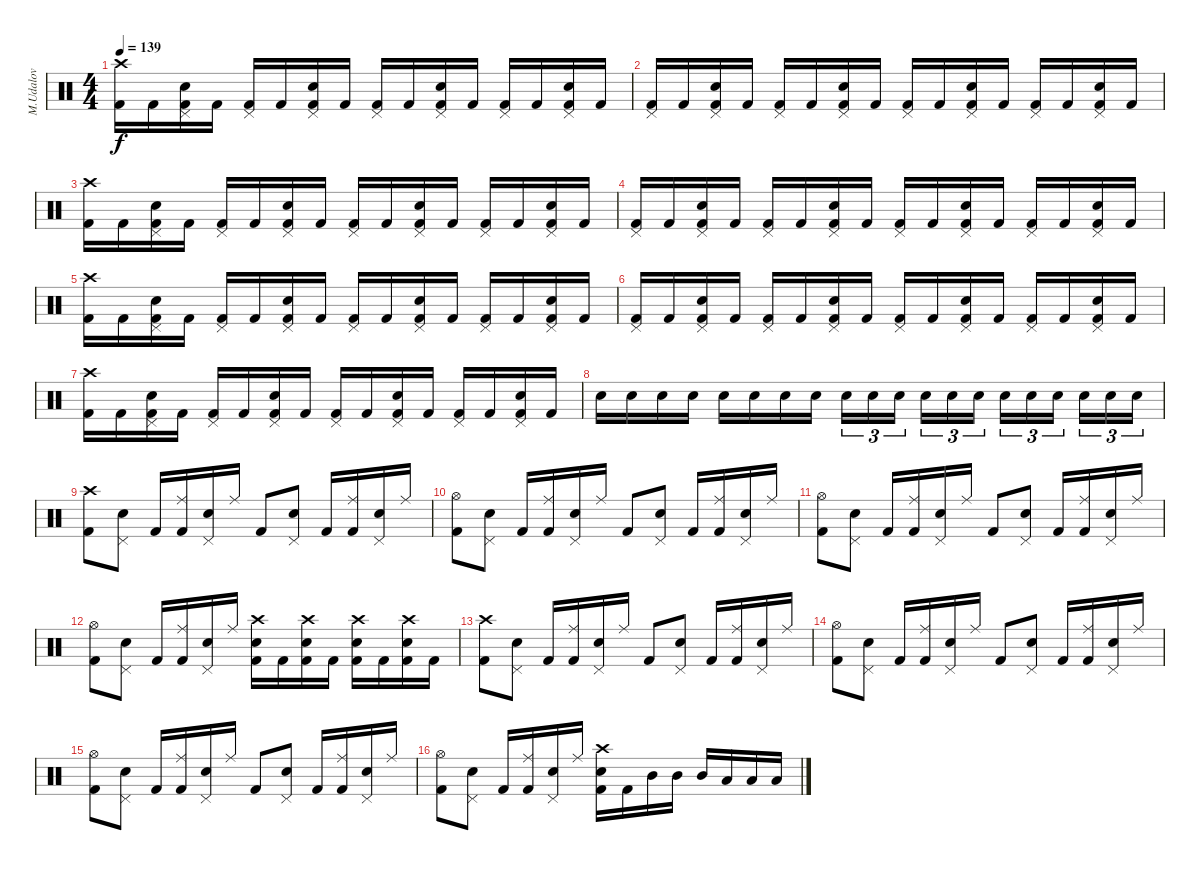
\track ("M.Udalov" "M.Udalov") {instrument percussion}
\staff {score}
\articulation defaults
\ts (4 4)
\tempo 139
\clef neutral
\ks c
("Crash high (hit)" "Kick (hit) 2").16{dy f} "Kick (hit) 2".16 ("Pedal Hi-Hat (hit)" "Snare (hit) 2" "Kick (hit) 2").16 "Kick (hit) 2".16 ("Pedal Hi-Hat (hit)" "Kick (hit) 2").16 "Kick (hit) 2".16 ("Pedal Hi-Hat (hit)" "Snare (hit) 2" "Kick (hit) 2").16 "Kick (hit) 2".16 ("Pedal Hi-Hat (hit)" "Kick (hit) 2").16 "Kick (hit) 2".16 ("Pedal Hi-Hat (hit)" "Snare (hit) 2" "Kick (hit) 2").16 "Kick (hit) 2".16 ("Pedal Hi-Hat (hit)" "Kick (hit) 2").16 "Kick (hit) 2".16 ("Pedal Hi-Hat (hit)" "Snare (hit) 2" "Kick (hit) 2").16 "Kick (hit) 2".16 |
("Pedal Hi-Hat (hit)" "Kick (hit) 2").16 "Kick (hit) 2".16 ("Pedal Hi-Hat (hit)" "Snare (hit) 2" "Kick (hit) 2").16 "Kick (hit) 2".16 ("Pedal Hi-Hat (hit)" "Kick (hit) 2").16 "Kick (hit) 2".16 ("Pedal Hi-Hat (hit)" "Snare (hit) 2" "Kick (hit) 2").16 "Kick (hit) 2".16 ("Pedal Hi-Hat (hit)" "Kick (hit) 2").16 "Kick (hit) 2".16 ("Pedal Hi-Hat (hit)" "Snare (hit) 2" "Kick (hit) 2").16 "Kick (hit) 2".16 ("Pedal Hi-Hat (hit)" "Kick (hit) 2").16 "Kick (hit) 2".16 ("Pedal Hi-Hat (hit)" "Snare (hit) 2" "Kick (hit) 2").16 "Kick (hit) 2".16 |
("Crash high (hit)" "Kick (hit) 2").16 "Kick (hit) 2".16 ("Pedal Hi-Hat (hit)" "Snare (hit) 2" "Kick (hit) 2").16 "Kick (hit) 2".16 ("Pedal Hi-Hat (hit)" "Kick (hit) 2").16 "Kick (hit) 2".16 ("Pedal Hi-Hat (hit)" "Snare (hit) 2" "Kick (hit) 2").16 "Kick (hit) 2".16 ("Pedal Hi-Hat (hit)" "Kick (hit) 2").16 "Kick (hit) 2".16 ("Pedal Hi-Hat (hit)" "Snare (hit) 2" "Kick (hit) 2").16 "Kick (hit) 2".16 ("Pedal Hi-Hat (hit)" "Kick (hit) 2").16 "Kick (hit) 2".16 ("Pedal Hi-Hat (hit)" "Snare (hit) 2" "Kick (hit) 2").16 "Kick (hit) 2".16 |
("Pedal Hi-Hat (hit)" "Kick (hit) 2").16 "Kick (hit) 2".16 ("Pedal Hi-Hat (hit)" "Snare (hit) 2" "Kick (hit) 2").16 "Kick (hit) 2".16 ("Pedal Hi-Hat (hit)" "Kick (hit) 2").16 "Kick (hit) 2".16 ("Pedal Hi-Hat (hit)" "Snare (hit) 2" "Kick (hit) 2").16 "Kick (hit) 2".16 ("Pedal Hi-Hat (hit)" "Kick (hit) 2").16 "Kick (hit) 2".16 ("Pedal Hi-Hat (hit)" "Snare (hit) 2" "Kick (hit) 2").16 "Kick (hit) 2".16 ("Pedal Hi-Hat (hit)" "Kick (hit) 2").16 "Kick (hit) 2".16 ("Pedal Hi-Hat (hit)" "Snare (hit) 2" "Kick (hit) 2").16 "Kick (hit) 2".16 |
("Crash high (hit)" "Kick (hit) 2").16 "Kick (hit) 2".16 ("Pedal Hi-Hat (hit)" "Snare (hit) 2" "Kick (hit) 2").16 "Kick (hit) 2".16 ("Pedal Hi-Hat (hit)" "Kick (hit) 2").16 "Kick (hit) 2".16 ("Pedal Hi-Hat (hit)" "Snare (hit) 2" "Kick (hit) 2").16 "Kick (hit) 2".16 ("Pedal Hi-Hat (hit)" "Kick (hit) 2").16 "Kick (hit) 2".16 ("Pedal Hi-Hat (hit)" "Snare (hit) 2" "Kick (hit) 2").16 "Kick (hit) 2".16 ("Pedal Hi-Hat (hit)" "Kick (hit) 2").16 "Kick (hit) 2".16 ("Pedal Hi-Hat (hit)" "Snare (hit) 2" "Kick (hit) 2").16 "Kick (hit) 2".16 |
("Pedal Hi-Hat (hit)" "Kick (hit) 2").16 "Kick (hit) 2".16 ("Pedal Hi-Hat (hit)" "Snare (hit) 2" "Kick (hit) 2").16 "Kick (hit) 2".16 ("Pedal Hi-Hat (hit)" "Kick (hit) 2").16 "Kick (hit) 2".16 ("Pedal Hi-Hat (hit)" "Snare (hit) 2" "Kick (hit) 2").16 "Kick (hit) 2".16 ("Pedal Hi-Hat (hit)" "Kick (hit) 2").16 "Kick (hit) 2".16 ("Pedal Hi-Hat (hit)" "Snare (hit) 2" "Kick (hit) 2").16 "Kick (hit) 2".16 ("Pedal Hi-Hat (hit)" "Kick (hit) 2").16 "Kick (hit) 2".16 ("Pedal Hi-Hat (hit)" "Snare (hit) 2" "Kick (hit) 2").16 "Kick (hit) 2".16 |
("Crash high (hit)" "Kick (hit) 2").16 "Kick (hit) 2".16 ("Pedal Hi-Hat (hit)" "Snare (hit) 2" "Kick (hit) 2").16 "Kick (hit) 2".16 ("Pedal Hi-Hat (hit)" "Kick (hit) 2").16 "Kick (hit) 2".16 ("Pedal Hi-Hat (hit)" "Snare (hit) 2" "Kick (hit) 2").16 "Kick (hit) 2".16 ("Pedal Hi-Hat (hit)" "Kick (hit) 2").16 "Kick (hit) 2".16 ("Pedal Hi-Hat (hit)" "Snare (hit) 2" "Kick (hit) 2").16 "Kick (hit) 2".16 ("Pedal Hi-Hat (hit)" "Kick (hit) 2").16 "Kick (hit) 2".16 ("Pedal Hi-Hat (hit)" "Snare (hit) 2" "Kick (hit) 2").16 "Kick (hit) 2".16 |
"Snare (hit) 2".16 "Snare (hit) 2".16 "Snare (hit) 2".16 "Snare (hit) 2".16 "Snare (hit) 2".16 "Snare (hit) 2".16 "Snare (hit) 2".16 "Snare (hit) 2".16 "Snare (hit) 2".16{tu (3 2)} "Snare (hit) 2".16{tu (3 2)} "Snare (hit) 2".16{tu (3 2)} "Snare (hit) 2".16{tu (3 2)} "Snare (hit) 2".16{tu (3 2)} "Snare (hit) 2".16{tu (3 2)} "Snare (hit) 2".16{tu (3 2)} "Snare (hit) 2".16{tu (3 2)} "Snare (hit) 2".16{tu (3 2)} "Snare (hit) 2".16{tu (3 2)} "Snare (hit) 2".16{tu (3 2)} "Snare (hit) 2".16{tu (3 2)} |
("Crash high (hit)" "Kick (hit) 2").8 ("Pedal Hi-Hat (hit)" "Snare (hit) 2").8 "Kick (hit) 2".16 ("Ride (middle)" "Kick (hit) 2").16 ("Pedal Hi-Hat (hit)" "Snare (hit) 2").16 "Ride (middle)".16 "Kick (hit) 2".8 ("Pedal Hi-Hat (hit)" "Snare (hit) 2").8 "Kick (hit) 2".16 ("Ride (middle)" "Kick (hit) 2").16 ("Pedal Hi-Hat (hit)" "Snare (hit) 2").16 "Ride (middle)".16 |
("Hi-Hat (open)" "Kick (hit) 2").8 ("Pedal Hi-Hat (hit)" "Snare (hit) 2").8 "Kick (hit) 2".16 ("Ride (middle)" "Kick (hit) 2").16 ("Pedal Hi-Hat (hit)" "Snare (hit) 2").16 "Ride (middle)".16 "Kick (hit) 2".8 ("Pedal Hi-Hat (hit)" "Snare (hit) 2").8 "Kick (hit) 2".16 ("Ride (middle)" "Kick (hit) 2").16 ("Pedal Hi-Hat (hit)" "Snare (hit) 2").16 "Ride (middle)".16 |
("Hi-Hat (open)" "Kick (hit) 2").8 ("Pedal Hi-Hat (hit)" "Snare (hit) 2").8 "Kick (hit) 2".16 ("Ride (middle)" "Kick (hit) 2").16 ("Pedal Hi-Hat (hit)" "Snare (hit) 2").16 "Ride (middle)".16 "Kick (hit) 2".8 ("Pedal Hi-Hat (hit)" "Snare (hit) 2").8 "Kick (hit) 2".16 ("Ride (middle)" "Kick (hit) 2").16 ("Pedal Hi-Hat (hit)" "Snare (hit) 2").16 "Ride (middle)".16 |
("Hi-Hat (open)" "Kick (hit) 2").8 ("Pedal Hi-Hat (hit)" "Snare (hit) 2").8 "Kick (hit) 2".16 ("Ride (middle)" "Kick (hit) 2").16 ("Pedal Hi-Hat (hit)" "Snare (hit) 2").16 "Ride (middle)".16 ("Crash high (hit)" "Snare (hit) 2" "Kick (hit) 2").16 "Kick (hit) 2".16 ("Crash high (hit)" "Snare (hit) 2" "Kick (hit) 2").16 "Kick (hit) 2".16 ("Crash high (hit)" "Snare (hit) 2" "Kick (hit) 2").16 "Kick (hit) 2".16 ("Crash high (hit)" "Snare (hit) 2" "Kick (hit) 2").16 "Kick (hit) 2".16 |
("Crash high (hit)" "Kick (hit) 2").8 ("Pedal Hi-Hat (hit)" "Snare (hit) 2").8 "Kick (hit) 2".16 ("Ride (middle)" "Kick (hit) 2").16 ("Pedal Hi-Hat (hit)" "Snare (hit) 2").16 "Ride (middle)".16 "Kick (hit) 2".8 ("Pedal Hi-Hat (hit)" "Snare (hit) 2").8 "Kick (hit) 2".16 ("Ride (middle)" "Kick (hit) 2").16 ("Pedal Hi-Hat (hit)" "Snare (hit) 2").16 "Ride (middle)".16 |
("Hi-Hat (open)" "Kick (hit) 2").8 ("Pedal Hi-Hat (hit)" "Snare (hit) 2").8 "Kick (hit) 2".16 ("Ride (middle)" "Kick (hit) 2").16 ("Pedal Hi-Hat (hit)" "Snare (hit) 2").16 "Ride (middle)".16 "Kick (hit) 2".8 ("Pedal Hi-Hat (hit)" "Snare (hit) 2").8 "Kick (hit) 2".16 ("Ride (middle)" "Kick (hit) 2").16 ("Pedal Hi-Hat (hit)" "Snare (hit) 2").16 "Ride (middle)".16 |
("Hi-Hat (open)" "Kick (hit) 2").8 ("Pedal Hi-Hat (hit)" "Snare (hit) 2").8 "Kick (hit) 2".16 ("Ride (middle)" "Kick (hit) 2").16 ("Pedal Hi-Hat (hit)" "Snare (hit) 2").16 "Ride (middle)".16 "Kick (hit) 2".8 ("Pedal Hi-Hat (hit)" "Snare (hit) 2").8 "Kick (hit) 2".16 ("Ride (middle)" "Kick (hit) 2").16 ("Pedal Hi-Hat (hit)" "Snare (hit) 2").16 "Ride (middle)".16 |
("Hi-Hat (open)" "Kick (hit) 2").8 ("Pedal Hi-Hat (hit)" "Snare (hit) 2").8 "Kick (hit) 2".16 ("Ride (middle)" "Kick (hit) 2").16 ("Pedal Hi-Hat (hit)" "Snare (hit) 2").16 "Ride (middle)".16 ("Crash high (hit)" "Snare (hit) 2" "Kick (hit) 2").16 "Kick (hit) 2".16 "Mid Tom (hit)".16 "Mid Tom (hit)".16 "Mid Tom (hit)".16 "Low Tom (hit)".16 "Low Tom (hit)".16 "Low Tom (hit)".16
